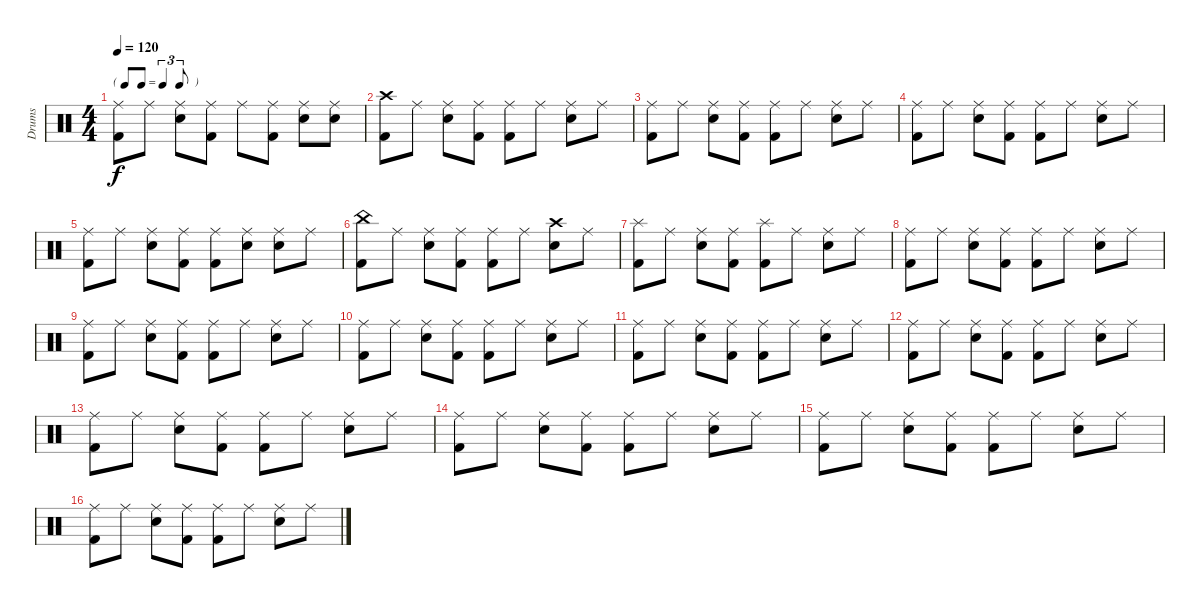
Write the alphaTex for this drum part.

\track ("Drums" "Drums") {instrument percussion}
\staff {score}
\articulation defaults
\ts (4 4)
\tf triplet8th
\tempo 120
\clef neutral
\ks c
("Ride (middle)" "Kick (hit) 2").8{dy f} "Ride (middle)".8 ("Ride (middle)" "Electric Snare (hit)").8 ("Ride (middle)" "Kick (hit) 2").8 "Ride (middle)".8 ("Ride (middle)" "Kick (hit) 2").8 ("Ride (middle)" "Electric Snare (hit)").8 ("Ride (middle)" "Electric Snare (hit)").8 |
("Crash high (hit)" "Kick (hit) 2").8 "Ride (middle)".8 ("Ride (middle)" "Electric Snare (hit)").8 ("Ride (middle)" "Kick (hit) 2").8 ("Ride (middle)" "Kick (hit) 2").8 "Ride (middle)".8 ("Ride (middle)" "Electric Snare (hit)").8 "Ride (middle)".8 |
("Ride (middle)" "Kick (hit) 2").8 "Ride (middle)".8 ("Ride (middle)" "Electric Snare (hit)").8 ("Ride (middle)" "Kick (hit) 2").8 ("Ride (middle)" "Kick (hit) 2").8 "Ride (middle)".8 ("Ride (middle)" "Electric Snare (hit)").8 "Ride (middle)".8 |
("Ride (middle)" "Kick (hit) 2").8 "Ride (middle)".8 ("Ride (middle)" "Electric Snare (hit)").8 ("Ride (middle)" "Kick (hit) 2").8 ("Ride (middle)" "Kick (hit) 2").8 "Ride (middle)".8 ("Ride (middle)" "Electric Snare (hit)").8 "Ride (middle)".8 |
("Ride (middle)" "Kick (hit) 2").8 "Ride (middle)".8 ("Ride (middle)" "Electric Snare (hit)").8 ("Ride (middle)" "Kick (hit) 2").8 ("Ride (middle)" "Kick (hit) 2").8 ("Ride (middle)" "Electric Snare (hit)").8 ("Ride (middle)" "Electric Snare (hit)").8 "Ride (middle)".8 |
("China (hit)" "Kick (hit) 2").8 "Ride (middle)".8 ("Ride (middle)" "Electric Snare (hit)").8 ("Ride (middle)" "Kick (hit) 2").8 ("Ride (middle)" "Kick (hit) 2").8 "Ride (middle)".8 ("Crash high (hit)" "Electric Snare (hit)").8 "Ride (middle)".8 |
("Splash (hit)" "Kick (hit) 2").8 "Ride (middle)".8 ("Ride (middle)" "Electric Snare (hit)").8 ("Ride (middle)" "Kick (hit) 2").8 ("Splash (hit)" "Kick (hit) 2").8 "Ride (middle)".8 ("Ride (middle)" "Electric Snare (hit)").8 "Ride (middle)".8 |
("Ride (middle)" "Kick (hit) 2").8 "Ride (middle)".8 ("Ride (middle)" "Electric Snare (hit)").8 ("Ride (middle)" "Kick (hit) 2").8 ("Ride (middle)" "Kick (hit) 2").8 "Ride (middle)".8 ("Ride (middle)" "Electric Snare (hit)").8 "Ride (middle)".8 |
("Ride (middle)" "Kick (hit) 2").8 "Ride (middle)".8 ("Ride (middle)" "Electric Snare (hit)").8 ("Ride (middle)" "Kick (hit) 2").8 ("Ride (middle)" "Kick (hit) 2").8 "Ride (middle)".8 ("Ride (middle)" "Electric Snare (hit)").8 "Ride (middle)".8 |
("Ride (middle)" "Kick (hit) 2").8 "Ride (middle)".8 ("Ride (middle)" "Electric Snare (hit)").8 ("Ride (middle)" "Kick (hit) 2").8 ("Ride (middle)" "Kick (hit) 2").8 "Ride (middle)".8 ("Ride (middle)" "Electric Snare (hit)").8 "Ride (middle)".8 |
("Ride (middle)" "Kick (hit) 2").8 "Ride (middle)".8 ("Ride (middle)" "Electric Snare (hit)").8 ("Ride (middle)" "Kick (hit) 2").8 ("Ride (middle)" "Kick (hit) 2").8 "Ride (middle)".8 ("Ride (middle)" "Electric Snare (hit)").8 "Ride (middle)".8 |
("Ride (middle)" "Kick (hit) 2").8 "Ride (middle)".8 ("Ride (middle)" "Electric Snare (hit)").8 ("Ride (middle)" "Kick (hit) 2").8 ("Ride (middle)" "Kick (hit) 2").8 "Ride (middle)".8 ("Ride (middle)" "Electric Snare (hit)").8 "Ride (middle)".8 |
("Ride (middle)" "Kick (hit) 2").8 "Ride (middle)".8 ("Ride (middle)" "Electric Snare (hit)").8 ("Ride (middle)" "Kick (hit) 2").8 ("Ride (middle)" "Kick (hit) 2").8 "Ride (middle)".8 ("Ride (middle)" "Electric Snare (hit)").8 "Ride (middle)".8 |
("Ride (middle)" "Kick (hit) 2").8 "Ride (middle)".8 ("Ride (middle)" "Electric Snare (hit)").8 ("Ride (middle)" "Kick (hit) 2").8 ("Ride (middle)" "Kick (hit) 2").8 "Ride (middle)".8 ("Ride (middle)" "Electric Snare (hit)").8 "Ride (middle)".8 |
("Ride (middle)" "Kick (hit) 2").8 "Ride (middle)".8 ("Ride (middle)" "Electric Snare (hit)").8 ("Ride (middle)" "Kick (hit) 2").8 ("Ride (middle)" "Kick (hit) 2").8 "Ride (middle)".8 ("Ride (middle)" "Electric Snare (hit)").8 "Ride (middle)".8 |
("Ride (middle)" "Kick (hit) 2").8 "Ride (middle)".8 ("Ride (middle)" "Electric Snare (hit)").8 ("Ride (middle)" "Kick (hit) 2").8 ("Ride (middle)" "Kick (hit) 2").8 "Ride (middle)".8 ("Ride (middle)" "Electric Snare (hit)").8 "Ride (middle)".8
